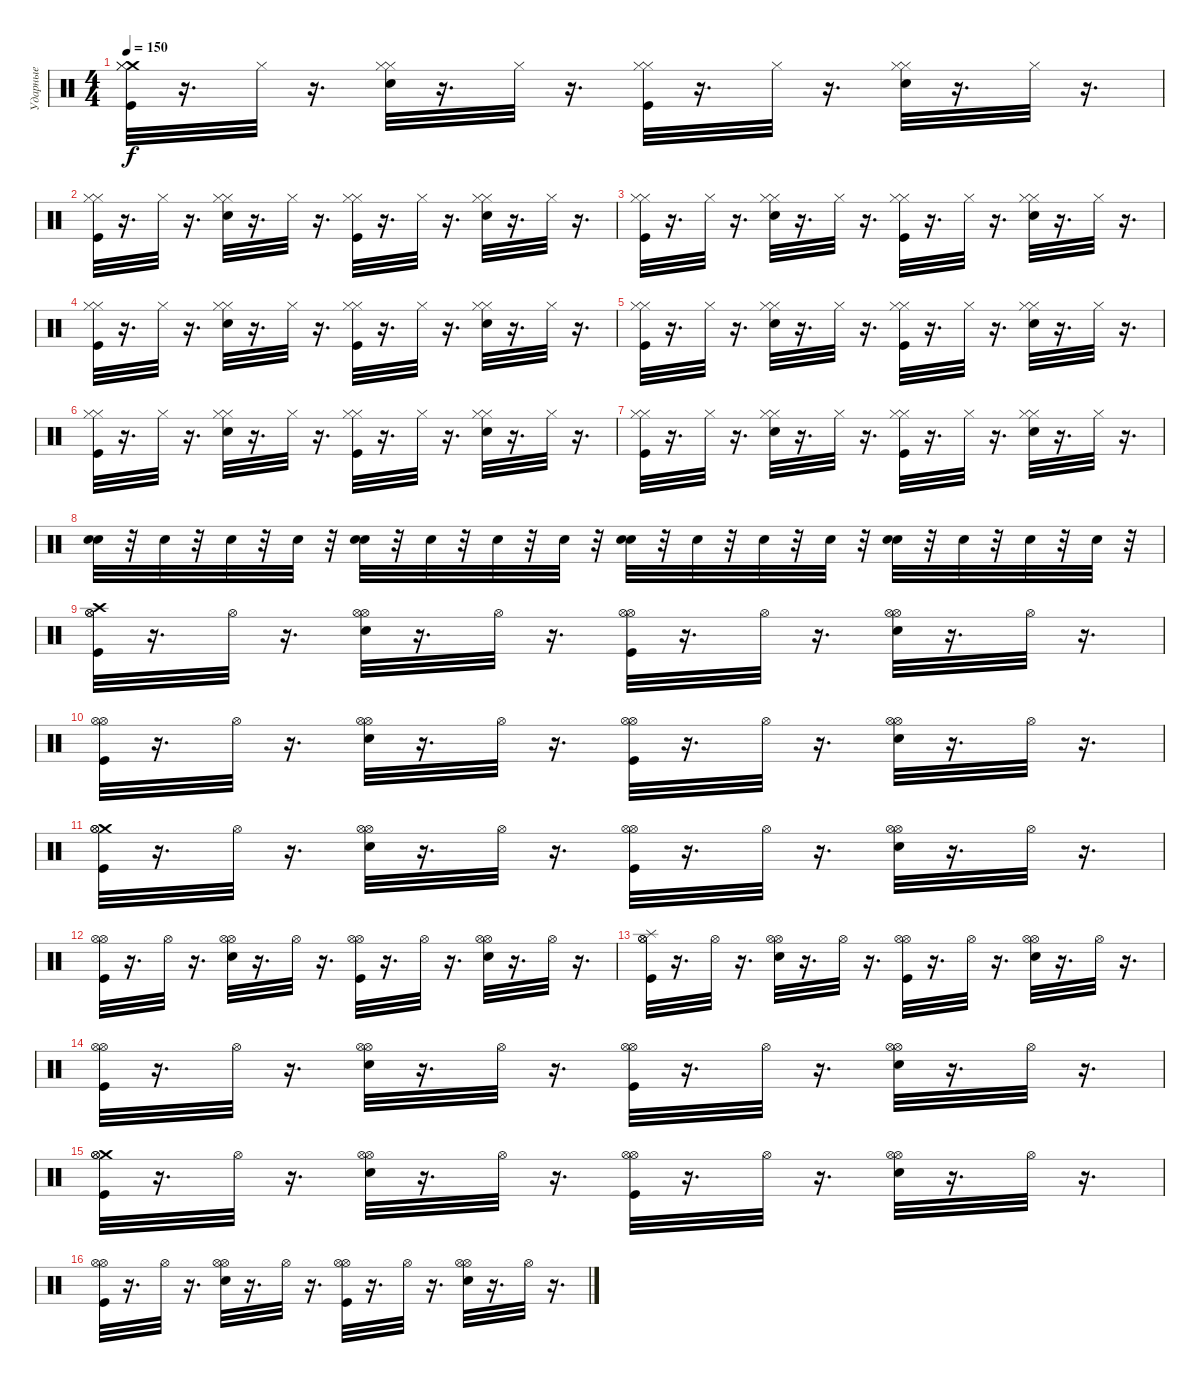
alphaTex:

\track ("Ударные" "Ударные") {instrument percussion}
\staff {score}
\articulation defaults
\ts (4 4)
\tempo 150
\clef neutral
\ks c
("Crash medium (hit)" "Hi-Hat (closed)" "Hi-Hat (closed)" "Kick (hit)").32{dy f} r.16{d} "Hi-Hat (closed)".32 r.16{d} ("Hi-Hat (closed)" "Hi-Hat (closed)" "Snare (hit) 2").32 r.16{d} "Hi-Hat (closed)".32 r.16{d} ("Hi-Hat (closed)" "Hi-Hat (closed)" "Kick (hit)").32 r.16{d} "Hi-Hat (closed)".32 r.16{d} ("Hi-Hat (closed)" "Hi-Hat (closed)" "Snare (hit) 2").32 r.16{d} "Hi-Hat (closed)".32 r.16{d} |
("Hi-Hat (closed)" "Hi-Hat (closed)" "Kick (hit)").32 r.16{d} "Hi-Hat (closed)".32 r.16{d} ("Hi-Hat (closed)" "Hi-Hat (closed)" "Snare (hit) 2").32 r.16{d} "Hi-Hat (closed)".32 r.16{d} ("Hi-Hat (closed)" "Hi-Hat (closed)" "Kick (hit)").32 r.16{d} "Hi-Hat (closed)".32 r.16{d} ("Hi-Hat (closed)" "Hi-Hat (closed)" "Snare (hit) 2").32 r.16{d} "Hi-Hat (closed)".32 r.16{d} |
("Hi-Hat (closed)" "Hi-Hat (closed)" "Kick (hit)").32 r.16{d} "Hi-Hat (closed)".32 r.16{d} ("Hi-Hat (closed)" "Hi-Hat (closed)" "Snare (hit) 2").32 r.16{d} "Hi-Hat (closed)".32 r.16{d} ("Hi-Hat (closed)" "Hi-Hat (closed)" "Kick (hit)").32 r.16{d} "Hi-Hat (closed)".32 r.16{d} ("Hi-Hat (closed)" "Hi-Hat (closed)" "Snare (hit) 2").32 r.16{d} "Hi-Hat (closed)".32 r.16{d} |
("Hi-Hat (closed)" "Hi-Hat (closed)" "Kick (hit)").32 r.16{d} "Hi-Hat (closed)".32 r.16{d} ("Hi-Hat (closed)" "Hi-Hat (closed)" "Snare (hit) 2").32 r.16{d} "Hi-Hat (closed)".32 r.16{d} ("Hi-Hat (closed)" "Hi-Hat (closed)" "Kick (hit)").32 r.16{d} "Hi-Hat (closed)".32 r.16{d} ("Hi-Hat (closed)" "Hi-Hat (closed)" "Snare (hit) 2").32 r.16{d} "Hi-Hat (closed)".32 r.16{d} |
("Hi-Hat (closed)" "Hi-Hat (closed)" "Kick (hit)").32 r.16{d} "Hi-Hat (closed)".32 r.16{d} ("Hi-Hat (closed)" "Hi-Hat (closed)" "Snare (hit) 2").32 r.16{d} "Hi-Hat (closed)".32 r.16{d} ("Hi-Hat (closed)" "Hi-Hat (closed)" "Kick (hit)").32 r.16{d} "Hi-Hat (closed)".32 r.16{d} ("Hi-Hat (closed)" "Hi-Hat (closed)" "Snare (hit) 2").32 r.16{d} "Hi-Hat (closed)".32 r.16{d} |
("Hi-Hat (closed)" "Hi-Hat (closed)" "Kick (hit)").32 r.16{d} "Hi-Hat (closed)".32 r.16{d} ("Hi-Hat (closed)" "Hi-Hat (closed)" "Snare (hit) 2").32 r.16{d} "Hi-Hat (closed)".32 r.16{d} ("Hi-Hat (closed)" "Hi-Hat (closed)" "Kick (hit)").32 r.16{d} "Hi-Hat (closed)".32 r.16{d} ("Hi-Hat (closed)" "Hi-Hat (closed)" "Snare (hit) 2").32 r.16{d} "Hi-Hat (closed)".32 r.16{d} |
("Hi-Hat (closed)" "Hi-Hat (closed)" "Kick (hit)").32 r.16{d} "Hi-Hat (closed)".32 r.16{d} ("Hi-Hat (closed)" "Hi-Hat (closed)" "Snare (hit) 2").32 r.16{d} "Hi-Hat (closed)".32 r.16{d} ("Hi-Hat (closed)" "Hi-Hat (closed)" "Kick (hit)").32 r.16{d} "Hi-Hat (closed)".32 r.16{d} ("Hi-Hat (closed)" "Hi-Hat (closed)" "Snare (hit) 2").32 r.16{d} "Hi-Hat (closed)".32 r.16{d} |
("Snare (hit) 2" "Snare (hit) 2").32 r.32 "Snare (hit) 2".32 r.32 "Snare (hit) 2".32 r.32 "Snare (hit) 2".32 r.32 ("Snare (hit) 2" "Snare (hit) 2").32 r.32 "Snare (hit) 2".32 r.32 "Snare (hit) 2".32 r.32 "Snare (hit) 2".32 r.32 ("Snare (hit) 2" "Snare (hit) 2").32 r.32 "Snare (hit) 2".32 r.32 "Snare (hit) 2".32 r.32 "Snare (hit) 2".32 r.32 ("Snare (hit) 2" "Snare (hit) 2").32 r.32 "Snare (hit) 2".32 r.32 "Snare (hit) 2".32 r.32 "Snare (hit) 2".32 r.32 |
("Crash high (hit)" "Kick (hit)" "Hi-Hat (open)" "Hi-Hat (open)").32 r.16{d} "Hi-Hat (open)".32 r.16{d} ("Hi-Hat (open)" "Snare (hit) 2" "Hi-Hat (open)").32 r.16{d} "Hi-Hat (open)".32 r.16{d} ("Hi-Hat (open)" "Kick (hit)" "Hi-Hat (open)").32 r.16{d} "Hi-Hat (open)".32 r.16{d} ("Hi-Hat (open)" "Hi-Hat (open)" "Snare (hit) 2").32 r.16{d} "Hi-Hat (open)".32 r.16{d} |
("Hi-Hat (open)" "Hi-Hat (open)" "Kick (hit)").32 r.16{d} "Hi-Hat (open)".32 r.16{d} ("Snare (hit) 2" "Hi-Hat (open)" "Hi-Hat (open)").32 r.16{d} "Hi-Hat (open)".32 r.16{d} ("Kick (hit)" "Hi-Hat (open)" "Hi-Hat (open)").32 r.16{d} "Hi-Hat (open)".32 r.16{d} ("Hi-Hat (open)" "Hi-Hat (open)" "Snare (hit) 2").32 r.16{d} "Hi-Hat (open)".32 r.16{d} |
("Crash medium (hit)" "Hi-Hat (open)" "Kick (hit)" "Hi-Hat (open)").32 r.16{d} "Hi-Hat (open)".32 r.16{d} ("Hi-Hat (open)" "Snare (hit) 2" "Hi-Hat (open)").32 r.16{d} "Hi-Hat (open)".32 r.16{d} ("Kick (hit)" "Hi-Hat (open)" "Hi-Hat (open)").32 r.16{d} "Hi-Hat (open)".32 r.16{d} ("Hi-Hat (open)" "Hi-Hat (open)" "Snare (hit) 2").32 r.16{d} "Hi-Hat (open)".32 r.16{d} |
("Kick (hit)" "Hi-Hat (open)" "Hi-Hat (open)").32 r.16{d} "Hi-Hat (open)".32 r.16{d} ("Snare (hit) 2" "Hi-Hat (open)" "Hi-Hat (open)").32 r.16{d} "Hi-Hat (open)".32 r.16{d} ("Kick (hit)" "Hi-Hat (open)" "Hi-Hat (open)").32 r.16{d} "Hi-Hat (open)".32 r.16{d} ("Hi-Hat (open)" "Snare (hit) 2" "Hi-Hat (open)").32 r.16{d} "Hi-Hat (open)".32 r.16{d} |
("Splash (hit)" "Hi-Hat (open)" "Kick (hit)" "Hi-Hat (open)").32 r.16{d} "Hi-Hat (open)".32 r.16{d} ("Hi-Hat (open)" "Hi-Hat (open)" "Snare (hit) 2").32 r.16{d} "Hi-Hat (open)".32 r.16{d} ("Hi-Hat (open)" "Hi-Hat (open)" "Kick (hit)").32 r.16{d} "Hi-Hat (open)".32 r.16{d} ("Snare (hit) 2" "Hi-Hat (open)" "Hi-Hat (open)").32 r.16{d} "Hi-Hat (open)".32 r.16{d} |
("Kick (hit)" "Hi-Hat (open)" "Hi-Hat (open)").32 r.16{d} "Hi-Hat (open)".32 r.16{d} ("Snare (hit) 2" "Hi-Hat (open)" "Hi-Hat (open)").32 r.16{d} "Hi-Hat (open)".32 r.16{d} ("Hi-Hat (open)" "Kick (hit)" "Hi-Hat (open)").32 r.16{d} "Hi-Hat (open)".32 r.16{d} ("Hi-Hat (open)" "Snare (hit) 2" "Hi-Hat (open)").32 r.16{d} "Hi-Hat (open)".32 r.16{d} |
("Crash medium (hit)" "Kick (hit)" "Hi-Hat (open)" "Hi-Hat (open)").32 r.16{d} "Hi-Hat (open)".32 r.16{d} ("Hi-Hat (open)" "Hi-Hat (open)" "Snare (hit) 2").32 r.16{d} "Hi-Hat (open)".32 r.16{d} ("Kick (hit)" "Hi-Hat (open)" "Hi-Hat (open)").32 r.16{d} "Hi-Hat (open)".32 r.16{d} ("Snare (hit) 2" "Hi-Hat (open)" "Hi-Hat (open)").32 r.16{d} "Hi-Hat (open)".32 r.16{d} |
("Kick (hit)" "Hi-Hat (open)" "Hi-Hat (open)").32 r.16{d} "Hi-Hat (open)".32 r.16{d} ("Hi-Hat (open)" "Snare (hit) 2" "Hi-Hat (open)").32 r.16{d} "Hi-Hat (open)".32 r.16{d} ("Kick (hit)" "Hi-Hat (open)" "Hi-Hat (open)").32 r.16{d} "Hi-Hat (open)".32 r.16{d} ("Snare (hit) 2" "Hi-Hat (open)" "Hi-Hat (open)").32 r.16{d} "Hi-Hat (open)".32 r.16{d}
